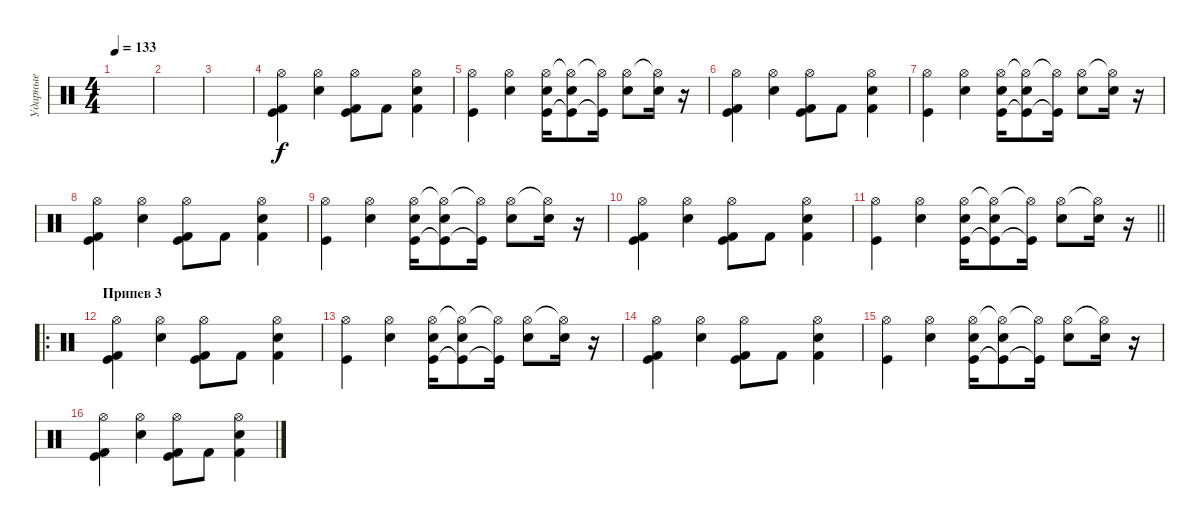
\track ("Ударные" "Ударные") {instrument percussion}
\staff {score}
\articulation defaults
\ts (4 4)
\tempo 133
\clef neutral
\ks c
|
|
|
("Hi-Hat (open)" "Kick (hit) 2" "Kick (hit)").4 ("Hi-Hat (open)" "Snare (hit) 2").4 ("Hi-Hat (open)" "Kick (hit) 2" "Kick (hit)").8 "Kick (hit) 2".8 ("Hi-Hat (open)" "Kick (hit) 2" "Snare (hit) 2").4 |
("Hi-Hat (open)" "Kick (hit)").4 ("Hi-Hat (open)" "Snare (hit) 2").4 ("Hi-Hat (open)" "Kick (hit)" "Snare (hit) 2").16 ("Hi-Hat (open)"{t} "Kick (hit)"{t} "Snare (hit) 2").8 ("Hi-Hat (open)"{t} "Kick (hit)"{t}).16 ("Hi-Hat (open)" "Snare (hit) 2").8 ("Hi-Hat (open)"{t} "Snare (hit) 2").16 r.16 |
("Hi-Hat (open)" "Kick (hit) 2" "Kick (hit)").4 ("Hi-Hat (open)" "Snare (hit) 2").4 ("Hi-Hat (open)" "Kick (hit) 2" "Kick (hit)").8 "Kick (hit) 2".8 ("Hi-Hat (open)" "Kick (hit) 2" "Snare (hit) 2").4 |
("Hi-Hat (open)" "Kick (hit)").4 ("Hi-Hat (open)" "Snare (hit) 2").4 ("Hi-Hat (open)" "Kick (hit)" "Snare (hit) 2").16 ("Hi-Hat (open)"{t} "Kick (hit)"{t} "Snare (hit) 2").8 ("Hi-Hat (open)"{t} "Kick (hit)"{t}).16 ("Hi-Hat (open)" "Snare (hit) 2").8 ("Hi-Hat (open)"{t} "Snare (hit) 2").16 r.16 |
("Hi-Hat (open)" "Kick (hit) 2" "Kick (hit)").4 ("Hi-Hat (open)" "Snare (hit) 2").4 ("Hi-Hat (open)" "Kick (hit) 2" "Kick (hit)").8 "Kick (hit) 2".8 ("Hi-Hat (open)" "Kick (hit) 2" "Snare (hit) 2").4 |
("Hi-Hat (open)" "Kick (hit)").4 ("Hi-Hat (open)" "Snare (hit) 2").4 ("Hi-Hat (open)" "Kick (hit)" "Snare (hit) 2").16 ("Hi-Hat (open)"{t} "Kick (hit)"{t} "Snare (hit) 2").8 ("Hi-Hat (open)"{t} "Kick (hit)"{t}).16 ("Hi-Hat (open)" "Snare (hit) 2").8 ("Hi-Hat (open)"{t} "Snare (hit) 2").16 r.16 |
("Hi-Hat (open)" "Kick (hit) 2" "Kick (hit)").4 ("Hi-Hat (open)" "Snare (hit) 2").4 ("Hi-Hat (open)" "Kick (hit) 2" "Kick (hit)").8 "Kick (hit) 2".8 ("Hi-Hat (open)" "Kick (hit) 2" "Snare (hit) 2").4 |
\barLineRight lightlight
("Hi-Hat (open)" "Kick (hit)").4 ("Hi-Hat (open)" "Snare (hit) 2").4 ("Hi-Hat (open)" "Kick (hit)" "Snare (hit) 2").16 ("Hi-Hat (open)"{t} "Kick (hit)"{t} "Snare (hit) 2").8 ("Hi-Hat (open)"{t} "Kick (hit)"{t}).16 ("Hi-Hat (open)" "Snare (hit) 2").8 ("Hi-Hat (open)"{t} "Snare (hit) 2").16 r.16 |
\ro
\section ("" "Припев 3")
("Hi-Hat (open)" "Kick (hit) 2" "Kick (hit)").4 ("Hi-Hat (open)" "Snare (hit) 2").4 ("Hi-Hat (open)" "Kick (hit) 2" "Kick (hit)").8 "Kick (hit) 2".8 ("Hi-Hat (open)" "Kick (hit) 2" "Snare (hit) 2").4 |
("Hi-Hat (open)" "Kick (hit)").4 ("Hi-Hat (open)" "Snare (hit) 2").4 ("Hi-Hat (open)" "Kick (hit)" "Snare (hit) 2").16 ("Hi-Hat (open)"{t} "Kick (hit)"{t} "Snare (hit) 2").8 ("Hi-Hat (open)"{t} "Kick (hit)"{t}).16 ("Hi-Hat (open)" "Snare (hit) 2").8 ("Hi-Hat (open)"{t} "Snare (hit) 2").16 r.16 |
("Hi-Hat (open)" "Kick (hit) 2" "Kick (hit)").4 ("Hi-Hat (open)" "Snare (hit) 2").4 ("Hi-Hat (open)" "Kick (hit) 2" "Kick (hit)").8 "Kick (hit) 2".8 ("Hi-Hat (open)" "Kick (hit) 2" "Snare (hit) 2").4 |
("Hi-Hat (open)" "Kick (hit)").4 ("Hi-Hat (open)" "Snare (hit) 2").4 ("Hi-Hat (open)" "Kick (hit)" "Snare (hit) 2").16 ("Hi-Hat (open)"{t} "Kick (hit)"{t} "Snare (hit) 2").8 ("Hi-Hat (open)"{t} "Kick (hit)"{t}).16 ("Hi-Hat (open)" "Snare (hit) 2").8 ("Hi-Hat (open)"{t} "Snare (hit) 2").16 r.16 |
("Hi-Hat (open)" "Kick (hit) 2" "Kick (hit)").4 ("Hi-Hat (open)" "Snare (hit) 2").4 ("Hi-Hat (open)" "Kick (hit) 2" "Kick (hit)").8 "Kick (hit) 2".8 ("Hi-Hat (open)" "Kick (hit) 2" "Snare (hit) 2").4
